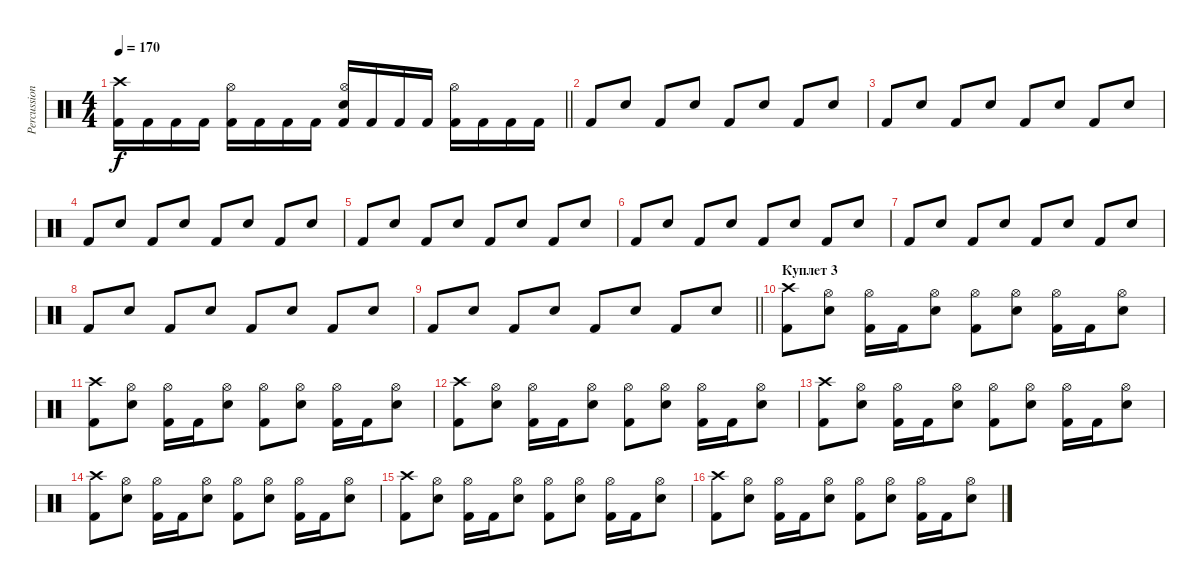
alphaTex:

\track ("Percussion" "Percussion") {instrument percussion}
\staff {score}
\articulation defaults
\ts (4 4)
\tempo 170
\clef neutral
\barLineRight lightlight
\ks c
("Crash high (hit)" "Kick (hit) 2").16{dy f} "Kick (hit) 2".16 "Kick (hit) 2".16 "Kick (hit) 2".16 ("Hi-Hat (open)" "Kick (hit) 2").16 "Kick (hit) 2".16 "Kick (hit) 2".16 "Kick (hit) 2".16 ("Hi-Hat (open)" "Snare (hit) 2" "Kick (hit) 2").16 "Kick (hit) 2".16 "Kick (hit) 2".16 "Kick (hit) 2".16 ("Hi-Hat (open)" "Kick (hit) 2").16 "Kick (hit) 2".16 "Kick (hit) 2".16 "Kick (hit) 2".16 |
\section ("" "")
"Kick (hit) 2".8 "Snare (hit) 2".8 "Kick (hit) 2".8 "Snare (hit) 2".8 "Kick (hit) 2".8 "Snare (hit) 2".8 "Kick (hit) 2".8 "Snare (hit) 2".8 |
"Kick (hit) 2".8 "Snare (hit) 2".8 "Kick (hit) 2".8 "Snare (hit) 2".8 "Kick (hit) 2".8 "Snare (hit) 2".8 "Kick (hit) 2".8 "Snare (hit) 2".8 |
"Kick (hit) 2".8 "Snare (hit) 2".8 "Kick (hit) 2".8 "Snare (hit) 2".8 "Kick (hit) 2".8 "Snare (hit) 2".8 "Kick (hit) 2".8 "Snare (hit) 2".8 |
"Kick (hit) 2".8 "Snare (hit) 2".8 "Kick (hit) 2".8 "Snare (hit) 2".8 "Kick (hit) 2".8 "Snare (hit) 2".8 "Kick (hit) 2".8 "Snare (hit) 2".8 |
"Kick (hit) 2".8 "Snare (hit) 2".8 "Kick (hit) 2".8 "Snare (hit) 2".8 "Kick (hit) 2".8 "Snare (hit) 2".8 "Kick (hit) 2".8 "Snare (hit) 2".8 |
"Kick (hit) 2".8 "Snare (hit) 2".8 "Kick (hit) 2".8 "Snare (hit) 2".8 "Kick (hit) 2".8 "Snare (hit) 2".8 "Kick (hit) 2".8 "Snare (hit) 2".8 |
"Kick (hit) 2".8 "Snare (hit) 2".8 "Kick (hit) 2".8 "Snare (hit) 2".8 "Kick (hit) 2".8 "Snare (hit) 2".8 "Kick (hit) 2".8 "Snare (hit) 2".8 |
\barLineRight lightlight "Kick (hit) 2".8 "Snare (hit) 2".8 "Kick (hit) 2".8 "Snare (hit) 2".8 "Kick (hit) 2".8 "Snare (hit) 2".8 "Kick (hit) 2".8 "Snare (hit) 2".8
|
\section ("" "Куплет 3")
("Crash high (hit)" "Kick (hit) 2").8 ("Hi-Hat (open)" "Snare (hit) 2").8 ("Hi-Hat (open)" "Kick (hit) 2").16 "Kick (hit) 2".16 ("Hi-Hat (open)" "Snare (hit) 2").8 ("Hi-Hat (open)" "Kick (hit) 2").8 ("Hi-Hat (open)" "Snare (hit) 2").8 ("Hi-Hat (open)" "Kick (hit) 2").16 "Kick (hit) 2".16 ("Hi-Hat (open)" "Snare (hit) 2").8 |
("Crash high (hit)" "Kick (hit) 2").8 ("Hi-Hat (open)" "Snare (hit) 2").8 ("Hi-Hat (open)" "Kick (hit) 2").16 "Kick (hit) 2".16 ("Hi-Hat (open)" "Snare (hit) 2").8 ("Hi-Hat (open)" "Kick (hit) 2").8 ("Hi-Hat (open)" "Snare (hit) 2").8 ("Hi-Hat (open)" "Kick (hit) 2").16 "Kick (hit) 2".16 ("Hi-Hat (open)" "Snare (hit) 2").8 |
("Crash high (hit)" "Kick (hit) 2").8 ("Hi-Hat (open)" "Snare (hit) 2").8 ("Hi-Hat (open)" "Kick (hit) 2").16 "Kick (hit) 2".16 ("Hi-Hat (open)" "Snare (hit) 2").8 ("Hi-Hat (open)" "Kick (hit) 2").8 ("Hi-Hat (open)" "Snare (hit) 2").8 ("Hi-Hat (open)" "Kick (hit) 2").16 "Kick (hit) 2".16 ("Hi-Hat (open)" "Snare (hit) 2").8 |
("Crash high (hit)" "Kick (hit) 2").8 ("Hi-Hat (open)" "Snare (hit) 2").8 ("Hi-Hat (open)" "Kick (hit) 2").16 "Kick (hit) 2".16 ("Hi-Hat (open)" "Snare (hit) 2").8 ("Hi-Hat (open)" "Kick (hit) 2").8 ("Hi-Hat (open)" "Snare (hit) 2").8 ("Hi-Hat (open)" "Kick (hit) 2").16 "Kick (hit) 2".16 ("Hi-Hat (open)" "Snare (hit) 2").8 |
("Crash high (hit)" "Kick (hit) 2").8 ("Hi-Hat (open)" "Snare (hit) 2").8 ("Hi-Hat (open)" "Kick (hit) 2").16 "Kick (hit) 2".16 ("Hi-Hat (open)" "Snare (hit) 2").8 ("Hi-Hat (open)" "Kick (hit) 2").8 ("Hi-Hat (open)" "Snare (hit) 2").8 ("Hi-Hat (open)" "Kick (hit) 2").16 "Kick (hit) 2".16 ("Hi-Hat (open)" "Snare (hit) 2").8 |
("Crash high (hit)" "Kick (hit) 2").8 ("Hi-Hat (open)" "Snare (hit) 2").8 ("Hi-Hat (open)" "Kick (hit) 2").16 "Kick (hit) 2".16 ("Hi-Hat (open)" "Snare (hit) 2").8 ("Hi-Hat (open)" "Kick (hit) 2").8 ("Hi-Hat (open)" "Snare (hit) 2").8 ("Hi-Hat (open)" "Kick (hit) 2").16 "Kick (hit) 2".16 ("Hi-Hat (open)" "Snare (hit) 2").8 |
("Crash high (hit)" "Kick (hit) 2").8 ("Hi-Hat (open)" "Snare (hit) 2").8 ("Hi-Hat (open)" "Kick (hit) 2").16 "Kick (hit) 2".16 ("Hi-Hat (open)" "Snare (hit) 2").8 ("Hi-Hat (open)" "Kick (hit) 2").8 ("Hi-Hat (open)" "Snare (hit) 2").8 ("Hi-Hat (open)" "Kick (hit) 2").16 "Kick (hit) 2".16 ("Hi-Hat (open)" "Snare (hit) 2").8
